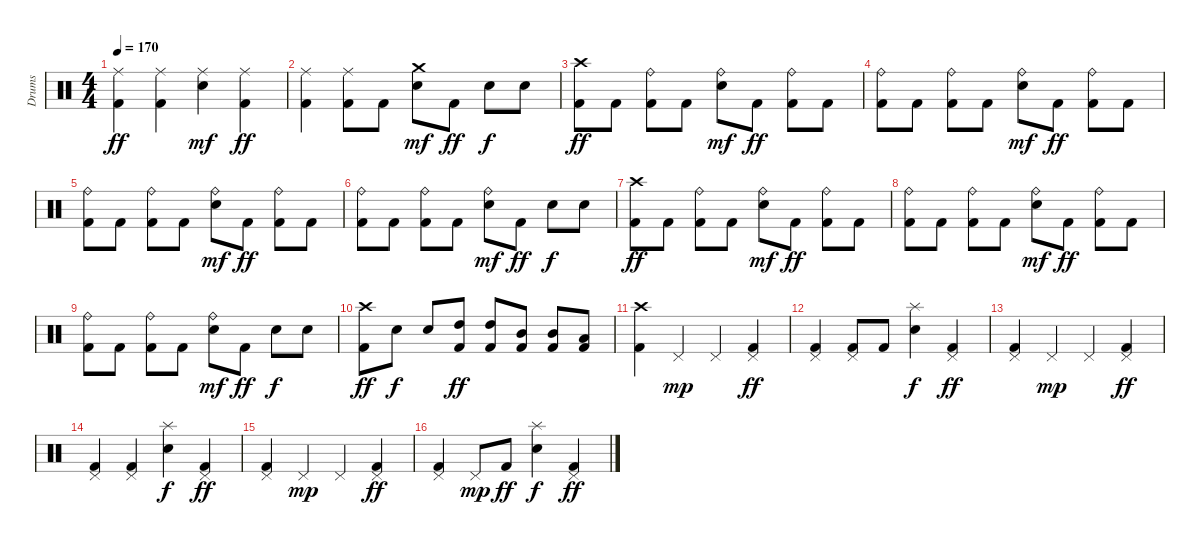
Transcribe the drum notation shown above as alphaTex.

\track ("Drums" "Drums") {instrument percussion}
\staff {score}
\articulation defaults
\ts (4 4)
\tempo 170
\clef neutral
\ks c
("Ride (middle)" "Kick (hit) 2").4{dy ff} ("Ride (middle)" "Kick (hit) 2").4 ("Ride (middle)" "Electric Snare (hit)").4{dy mf} ("Ride (middle)" "Kick (hit) 2").4{dy ff} |
("Ride (middle)" "Kick (hit) 2").4 ("Ride (middle)" "Kick (hit) 2").8 "Kick (hit) 2".8 ("Crash medium (hit)" "Electric Snare (hit)").8{dy mf} "Kick (hit) 2".8{dy ff} "Electric Snare (hit)".8{dy f} "Electric Snare (hit)".8 |
("Crash high (hit)" "Kick (hit) 2").8{dy ff} "Kick (hit) 2".8 ("Ride (bell)" "Kick (hit) 2").8 "Kick (hit) 2".8 ("Ride (bell)" "Electric Snare (hit)").8{dy mf} "Kick (hit) 2".8{dy ff} ("Ride (bell)" "Kick (hit) 2").8 "Kick (hit) 2".8 |
("Ride (bell)" "Kick (hit) 2").8 "Kick (hit) 2".8 ("Ride (bell)" "Kick (hit) 2").8 "Kick (hit) 2".8 ("Ride (bell)" "Electric Snare (hit)").8{dy mf} "Kick (hit) 2".8{dy ff} ("Ride (bell)" "Kick (hit) 2").8 "Kick (hit) 2".8 |
("Ride (bell)" "Kick (hit) 2").8 "Kick (hit) 2".8 ("Ride (bell)" "Kick (hit) 2").8 "Kick (hit) 2".8 ("Ride (bell)" "Electric Snare (hit)").8{dy mf} "Kick (hit) 2".8{dy ff} ("Ride (bell)" "Kick (hit) 2").8 "Kick (hit) 2".8 |
("Ride (bell)" "Kick (hit) 2").8 "Kick (hit) 2".8 ("Ride (bell)" "Kick (hit) 2").8 "Kick (hit) 2".8 ("Ride (bell)" "Electric Snare (hit)").8{dy mf} "Kick (hit) 2".8{dy ff} "Electric Snare (hit)".8{dy f} "Electric Snare (hit)".8 |
("Crash high (hit)" "Kick (hit) 2").8{dy ff} "Kick (hit) 2".8 ("Ride (bell)" "Kick (hit) 2").8 "Kick (hit) 2".8 ("Ride (bell)" "Electric Snare (hit)").8{dy mf} "Kick (hit) 2".8{dy ff} ("Ride (bell)" "Kick (hit) 2").8 "Kick (hit) 2".8 |
("Ride (bell)" "Kick (hit) 2").8 "Kick (hit) 2".8 ("Ride (bell)" "Kick (hit) 2").8 "Kick (hit) 2".8 ("Ride (bell)" "Electric Snare (hit)").8{dy mf} "Kick (hit) 2".8{dy ff} ("Ride (bell)" "Kick (hit) 2").8 "Kick (hit) 2".8 |
("Ride (bell)" "Kick (hit) 2").8 "Kick (hit) 2".8 ("Ride (bell)" "Kick (hit) 2").8 "Kick (hit) 2".8 ("Ride (bell)" "Electric Snare (hit)").8{dy mf} "Kick (hit) 2".8{dy ff} "Electric Snare (hit)".8{dy f} "Electric Snare (hit)".8 |
("Crash high (hit)" "Kick (hit) 2").8{dy ff} "Electric Snare (hit)".8{dy f} "Electric Snare (hit)".8 ("High Tom (hit)" "Kick (hit) 2").8{dy ff} ("High Tom (hit)" "Kick (hit) 2").8 ("Mid Tom (hit)" "Kick (hit) 2").8 ("Mid Tom (hit)" "Kick (hit) 2").8 ("Low Tom (hit)" "Kick (hit) 2").8 |
\section ("" "")
("Crash high (hit)" "Kick (hit) 2").4 "Pedal Hi-Hat (hit)".4{dy mp} "Pedal Hi-Hat (hit)".4 ("Pedal Hi-Hat (hit)" "Kick (hit) 2").4{dy ff} |
("Pedal Hi-Hat (hit)" "Kick (hit) 2").4 ("Pedal Hi-Hat (hit)" "Kick (hit) 2").8 "Kick (hit) 2".8 ("Splash (hit)" "Electric Snare (hit)").4{dy f} ("Pedal Hi-Hat (hit)" "Kick (hit) 2").4{dy ff} |
("Pedal Hi-Hat (hit)" "Kick (hit) 2").4 "Pedal Hi-Hat (hit)".4{dy mp} "Pedal Hi-Hat (hit)".4 ("Pedal Hi-Hat (hit)" "Kick (hit) 2").4{dy ff} |
("Pedal Hi-Hat (hit)" "Kick (hit) 2").4 ("Pedal Hi-Hat (hit)" "Kick (hit) 2").4 ("Splash (hit)" "Electric Snare (hit)").4{dy f} ("Pedal Hi-Hat (hit)" "Kick (hit) 2").4{dy ff} |
("Pedal Hi-Hat (hit)" "Kick (hit) 2").4 "Pedal Hi-Hat (hit)".4{dy mp} "Pedal Hi-Hat (hit)".4 ("Pedal Hi-Hat (hit)" "Kick (hit) 2").4{dy ff} |
("Pedal Hi-Hat (hit)" "Kick (hit) 2").4 "Pedal Hi-Hat (hit)".8{dy mp} "Kick (hit) 2".8{dy ff} ("Splash (hit)" "Electric Snare (hit)").4{dy f} ("Pedal Hi-Hat (hit)" "Kick (hit) 2").4{dy ff}
